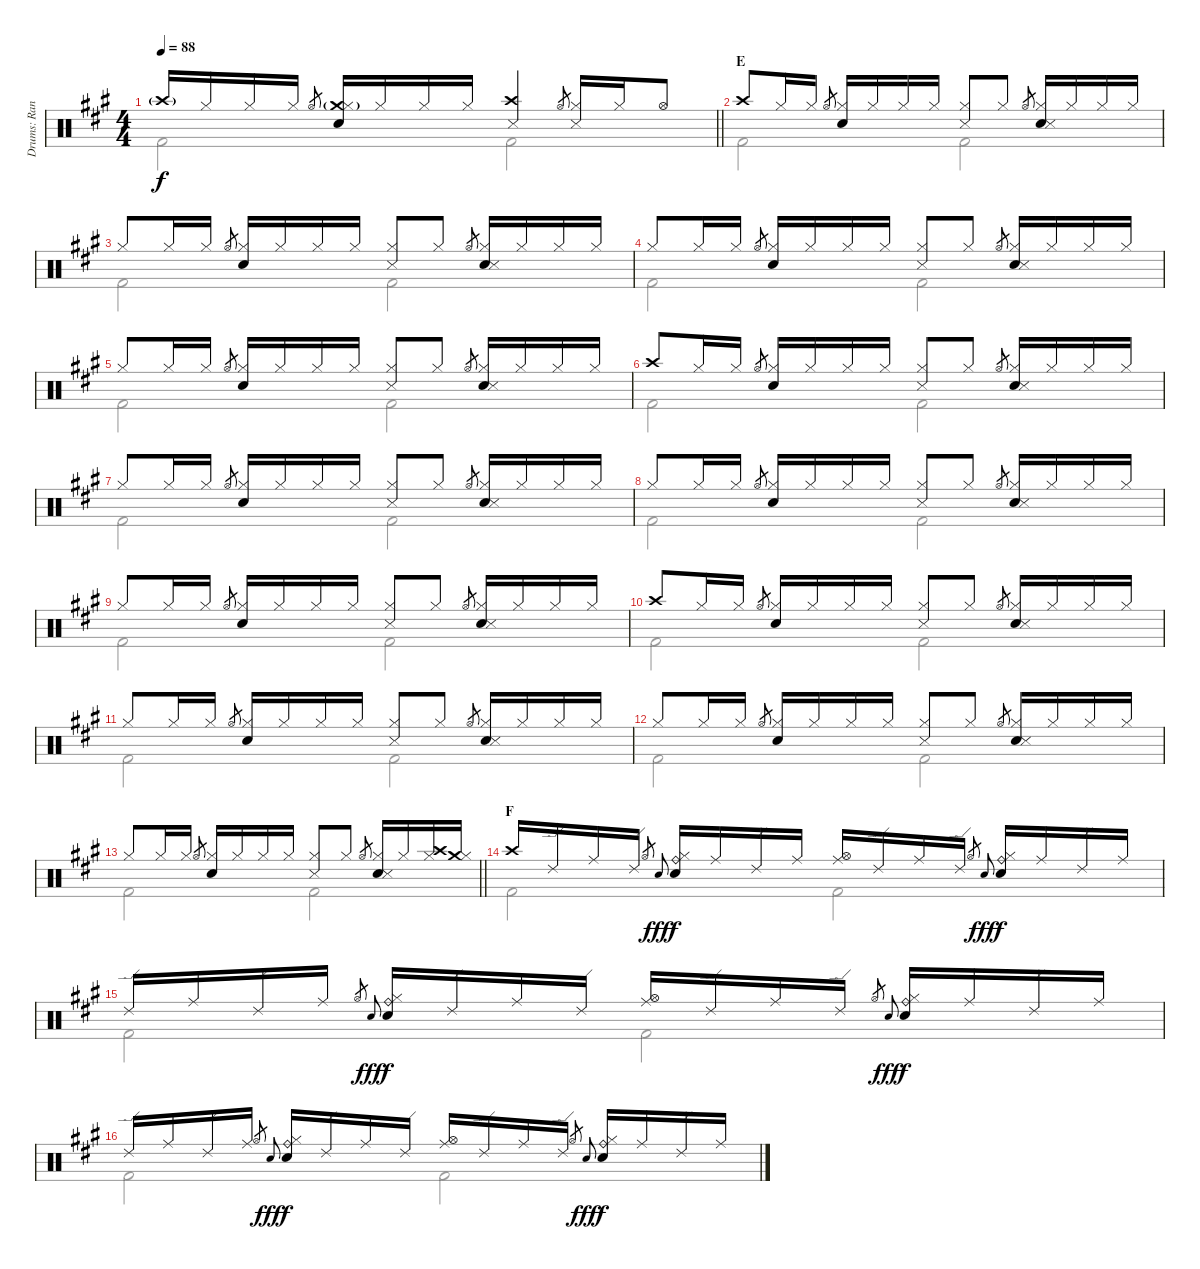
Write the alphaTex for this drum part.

\track ("Drums: Randy" "Drums: Ran") {instrument percussion}
\staff {score}
\articulation defaults
\voice
\ts (4 4)
\tempo 88
\clef neutral
\barLineRight lightlight
\ks a "Crash high (hit)"{g}.16{dy f} "Hi-Hat (closed)".16 "Hi-Hat (closed)".16 "Hi-Hat (closed)".16 "Hi-Hat (open)".8{gr}
("Crash medium (hit)"{g} "Hi-Hat (closed)" "Electric Snare (hit)").16 "Hi-Hat (closed)".16 "Hi-Hat (closed)".16 "Hi-Hat (closed)".16 ("Crash high (hit)" "Snare (side stick) 3").4 "Hi-Hat (open)".8{gr} ("Hi-Hat (closed)" "Snare (side stick) 3").16 "Hi-Hat (closed)".16 "Hi-Hat (open)".8 |
\section ("" "E")
"Crash high (hit)".8 "Hi-Hat (closed)".16 "Hi-Hat (closed)".16 "Hi-Hat (open)".8{gr} ("Hi-Hat (closed)" "Electric Snare (hit)").16 "Hi-Hat (closed)".16 "Hi-Hat (closed)".16 "Hi-Hat (closed)".16 ("Hi-Hat (closed)" "Snare (side stick) 3").8 "Hi-Hat (closed)".8 "Hi-Hat (open)".8{gr} ("Hi-Hat (closed)" "Electric Snare (hit)" "Snare (side stick) 3").16 "Hi-Hat (closed)".16 "Hi-Hat (closed)".16 "Hi-Hat (closed)".16 |
"Hi-Hat (closed)".8 "Hi-Hat (closed)".16 "Hi-Hat (closed)".16 "Hi-Hat (open)".8{gr} ("Hi-Hat (closed)" "Electric Snare (hit)").16 "Hi-Hat (closed)".16 "Hi-Hat (closed)".16 "Hi-Hat (closed)".16 ("Hi-Hat (closed)" "Snare (side stick) 3").8 "Hi-Hat (closed)".8 "Hi-Hat (open)".8{gr} ("Hi-Hat (closed)" "Electric Snare (hit)" "Snare (side stick) 3").16 "Hi-Hat (closed)".16 "Hi-Hat (closed)".16 "Hi-Hat (closed)".16 |
"Hi-Hat (closed)".8 "Hi-Hat (closed)".16 "Hi-Hat (closed)".16 "Hi-Hat (open)".8{gr} ("Hi-Hat (closed)" "Electric Snare (hit)").16 "Hi-Hat (closed)".16 "Hi-Hat (closed)".16 "Hi-Hat (closed)".16 ("Hi-Hat (closed)" "Snare (side stick) 3").8 "Hi-Hat (closed)".8 "Hi-Hat (open)".8{gr} ("Hi-Hat (closed)" "Electric Snare (hit)" "Snare (side stick) 3").16 "Hi-Hat (closed)".16 "Hi-Hat (closed)".16 "Hi-Hat (closed)".16 |
"Hi-Hat (closed)".8 "Hi-Hat (closed)".16 "Hi-Hat (closed)".16 "Hi-Hat (open)".8{gr} ("Hi-Hat (closed)" "Electric Snare (hit)").16 "Hi-Hat (closed)".16 "Hi-Hat (closed)".16 "Hi-Hat (closed)".16 ("Hi-Hat (closed)" "Snare (side stick) 3").8 "Hi-Hat (closed)".8 "Hi-Hat (open)".8{gr} ("Hi-Hat (closed)" "Electric Snare (hit)" "Snare (side stick) 3").16 "Hi-Hat (closed)".16 "Hi-Hat (closed)".16 "Hi-Hat (closed)".16 |
"Crash high (hit)".8 "Hi-Hat (closed)".16 "Hi-Hat (closed)".16 "Hi-Hat (open)".8{gr} ("Hi-Hat (closed)" "Electric Snare (hit)").16 "Hi-Hat (closed)".16 "Hi-Hat (closed)".16 "Hi-Hat (closed)".16 ("Hi-Hat (closed)" "Snare (side stick) 3").8 "Hi-Hat (closed)".8 "Hi-Hat (open)".8{gr} ("Hi-Hat (closed)" "Electric Snare (hit)" "Snare (side stick) 3").16 "Hi-Hat (closed)".16 "Hi-Hat (closed)".16 "Hi-Hat (closed)".16 |
"Hi-Hat (closed)".8 "Hi-Hat (closed)".16 "Hi-Hat (closed)".16 "Hi-Hat (open)".8{gr} ("Hi-Hat (closed)" "Electric Snare (hit)").16 "Hi-Hat (closed)".16 "Hi-Hat (closed)".16 "Hi-Hat (closed)".16 ("Hi-Hat (closed)" "Snare (side stick) 3").8 "Hi-Hat (closed)".8 "Hi-Hat (open)".8{gr} ("Hi-Hat (closed)" "Electric Snare (hit)" "Snare (side stick) 3").16 "Hi-Hat (closed)".16 "Hi-Hat (closed)".16 "Hi-Hat (closed)".16 |
"Hi-Hat (closed)".8 "Hi-Hat (closed)".16 "Hi-Hat (closed)".16 "Hi-Hat (open)".8{gr} ("Hi-Hat (closed)" "Electric Snare (hit)").16 "Hi-Hat (closed)".16 "Hi-Hat (closed)".16 "Hi-Hat (closed)".16 ("Hi-Hat (closed)" "Snare (side stick) 3").8 "Hi-Hat (closed)".8 "Hi-Hat (open)".8{gr} ("Hi-Hat (closed)" "Electric Snare (hit)" "Snare (side stick) 3").16 "Hi-Hat (closed)".16 "Hi-Hat (closed)".16 "Hi-Hat (closed)".16 |
"Hi-Hat (closed)".8 "Hi-Hat (closed)".16 "Hi-Hat (closed)".16 "Hi-Hat (open)".8{gr} ("Hi-Hat (closed)" "Electric Snare (hit)").16 "Hi-Hat (closed)".16 "Hi-Hat (closed)".16 "Hi-Hat (closed)".16 ("Hi-Hat (closed)" "Snare (side stick) 3").8 "Hi-Hat (closed)".8 "Hi-Hat (open)".8{gr} ("Hi-Hat (closed)" "Electric Snare (hit)" "Snare (side stick) 3").16 "Hi-Hat (closed)".16 "Hi-Hat (closed)".16 "Hi-Hat (closed)".16 |
"Crash high (hit)".8 "Hi-Hat (closed)".16 "Hi-Hat (closed)".16 "Hi-Hat (open)".8{gr} ("Hi-Hat (closed)" "Electric Snare (hit)").16 "Hi-Hat (closed)".16 "Hi-Hat (closed)".16 "Hi-Hat (closed)".16 ("Hi-Hat (closed)" "Snare (side stick) 3").8 "Hi-Hat (closed)".8 "Hi-Hat (open)".8{gr} ("Hi-Hat (closed)" "Electric Snare (hit)" "Snare (side stick) 3").16 "Hi-Hat (closed)".16 "Hi-Hat (closed)".16 "Hi-Hat (closed)".16 |
"Hi-Hat (closed)".8 "Hi-Hat (closed)".16 "Hi-Hat (closed)".16 "Hi-Hat (open)".8{gr} ("Hi-Hat (closed)" "Electric Snare (hit)").16 "Hi-Hat (closed)".16 "Hi-Hat (closed)".16 "Hi-Hat (closed)".16 ("Hi-Hat (closed)" "Snare (side stick) 3").8 "Hi-Hat (closed)".8 "Hi-Hat (open)".8{gr} ("Hi-Hat (closed)" "Electric Snare (hit)" "Snare (side stick) 3").16 "Hi-Hat (closed)".16 "Hi-Hat (closed)".16 "Hi-Hat (closed)".16 |
"Hi-Hat (closed)".8 "Hi-Hat (closed)".16 "Hi-Hat (closed)".16 "Hi-Hat (open)".8{gr} ("Hi-Hat (closed)" "Electric Snare (hit)").16 "Hi-Hat (closed)".16 "Hi-Hat (closed)".16 "Hi-Hat (closed)".16 ("Hi-Hat (closed)" "Snare (side stick) 3").8 "Hi-Hat (closed)".8 "Hi-Hat (open)".8{gr} ("Hi-Hat (closed)" "Electric Snare (hit)" "Snare (side stick) 3").16 "Hi-Hat (closed)".16 "Hi-Hat (closed)".16 "Hi-Hat (closed)".16 |
\barLineRight lightlight "Hi-Hat (closed)".8 "Hi-Hat (closed)".16 "Hi-Hat (closed)".16 "Hi-Hat (open)".8{gr}
("Hi-Hat (closed)" "Electric Snare (hit)").16 "Hi-Hat (closed)".16 "Hi-Hat (closed)".16 "Hi-Hat (closed)".16 ("Hi-Hat (closed)" "Snare (side stick) 3").8 "Hi-Hat (closed)".8 "Hi-Hat (open)".8{gr} ("Hi-Hat (closed)" "Electric Snare (hit)" "Snare (side stick) 3").16 "Hi-Hat (closed)".16 ("Crash high (hit)" "Hi-Hat (closed)").16 ("Crash medium (hit)" "Hi-Hat (closed)").16 |
\section ("" "F")
"Crash high (hit)".16 "Ride (edge) 2".16 "Ride (middle)".16 "Ride (edge) 2".16 "Hi-Hat (open)".16{gr} "Electric Snare (hit)".16{gr onbeat dy fff} ("Ride (bell)" "Hi-Hat (closed)" "Snare (hit) 2").16{dy f} "Ride (middle)".16 "Ride (edge) 2".16 "Ride (middle)".16 ("Ride (middle)" "Hi-Hat (open)").16 "Ride (edge) 2".16 "Ride (middle)".16 "Ride (edge) 2".16 "Hi-Hat (open)".16{gr} "Electric Snare (hit)".16{gr onbeat dy fff} ("Ride (bell)" "Hi-Hat (closed)" "Snare (hit) 2").16{dy f} "Ride (middle)".16 "Ride (edge) 2".16 "Ride (middle)".16 |
"Ride (edge) 2".16 "Ride (middle)".16 "Ride (edge) 2".16 "Ride (middle)".16 "Hi-Hat (open)".16{gr} "Electric Snare (hit)".16{gr onbeat dy fff} ("Ride (bell)" "Hi-Hat (closed)" "Snare (hit) 2").16{dy f} "Ride (edge) 2".16 "Ride (middle)".16 "Ride (edge) 2".16 ("Ride (middle)" "Hi-Hat (open)").16 "Ride (edge) 2".16 "Ride (middle)".16 "Ride (edge) 2".16 "Hi-Hat (open)".16{gr} "Electric Snare (hit)".16{gr onbeat dy fff} ("Ride (bell)" "Hi-Hat (closed)" "Snare (hit) 2").16{dy f} "Ride (middle)".16 "Ride (edge) 2".16 "Ride (middle)".16 |
"Ride (edge) 2".16 "Ride (middle)".16 "Ride (edge) 2".16 "Ride (middle)".16 "Hi-Hat (open)".16{gr} "Electric Snare (hit)".16{gr onbeat dy fff} ("Ride (bell)" "Hi-Hat (closed)" "Snare (hit) 2").16{dy f} "Ride (edge) 2".16 "Ride (middle)".16 "Ride (edge) 2".16 ("Ride (middle)" "Hi-Hat (open)").16 "Ride (edge) 2".16 "Ride (middle)".16 "Ride (edge) 2".16 "Hi-Hat (open)".16{gr} "Electric Snare (hit)".16{gr onbeat dy fff} ("Ride (bell)" "Hi-Hat (closed)" "Snare (hit) 2").16{dy f} "Ride (middle)".16 "Ride (edge) 2".16 "Ride (middle)".16
\voice
\clef neutral
\ottava regular
\simile none
\barLineRight lightlight
\ks a "Kick (hit) 2".2{dy f} "Kick (hit) 2".2
|
"Kick (hit) 2".2 "Kick (hit) 2".2 |
"Kick (hit) 2".2 "Kick (hit) 2".2 |
"Kick (hit) 2".2 "Kick (hit) 2".2 |
"Kick (hit) 2".2 "Kick (hit) 2".2 |
"Kick (hit) 2".2 "Kick (hit) 2".2 |
"Kick (hit) 2".2 "Kick (hit) 2".2 |
"Kick (hit) 2".2 "Kick (hit) 2".2 |
"Kick (hit) 2".2 "Kick (hit) 2".2 |
"Kick (hit) 2".2 "Kick (hit) 2".2 |
"Kick (hit) 2".2 "Kick (hit) 2".2 |
"Kick (hit) 2".2 "Kick (hit) 2".2 |
\barLineRight lightlight "Kick (hit) 2".2 "Kick (hit) 2".2
|
"Kick (hit) 2".2 "Kick (hit) 2".2 |
"Kick (hit) 2".2 "Kick (hit) 2".2 |
"Kick (hit) 2".2 "Kick (hit) 2".2
